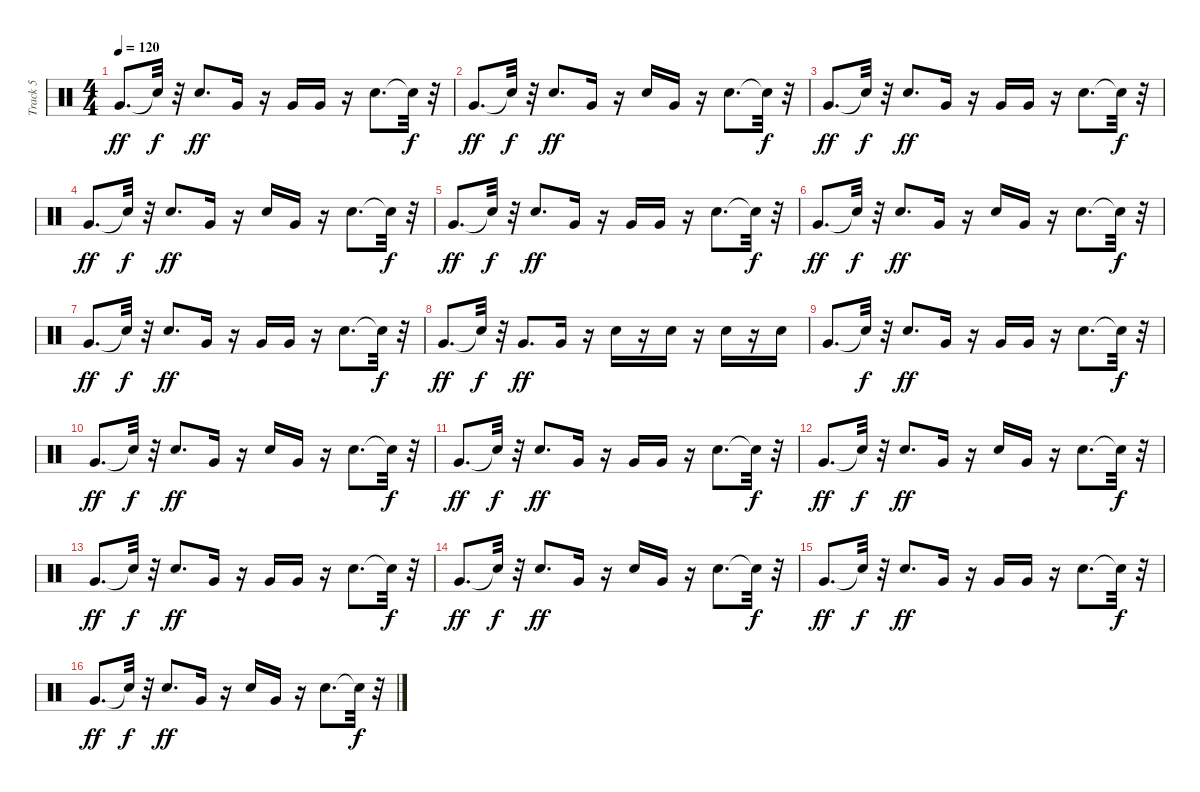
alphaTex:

\track ("Track 5" "Track 5") {instrument percussion}
\staff {score}
\articulation defaults
\ts (4 4)
\tempo 120
\clef neutral
\ks c "Very Low Tom (hit)".8{d dy ff} "Snare (hit)"{t}.32{dy f}
r.32 "Snare (hit) 2".8{d dy ff} "Very Low Tom (hit)".16 r.16 "Very Low Tom (hit)".16 "Very Low Tom (hit)".16 r.16 "Snare (hit) 2".8{d} "Snare (hit)"{t}.32{dy f} r.32 |
"Very Low Tom (hit)".8{d dy ff} "Snare (hit)"{t}.32{dy f} r.32 "Snare (hit) 2".8{d dy ff} "Very Low Tom (hit)".16 r.16 "Snare (hit) 2".16 "Very Low Tom (hit)".16 r.16 "Snare (hit) 2".8{d} "Snare (hit)"{t}.32{dy f} r.32 |
"Very Low Tom (hit)".8{d dy ff} "Snare (hit)"{t}.32{dy f} r.32 "Snare (hit) 2".8{d dy ff} "Very Low Tom (hit)".16 r.16 "Very Low Tom (hit)".16 "Very Low Tom (hit)".16 r.16 "Snare (hit) 2".8{d} "Snare (hit)"{t}.32{dy f} r.32 |
"Very Low Tom (hit)".8{d dy ff} "Snare (hit)"{t}.32{dy f} r.32 "Snare (hit) 2".8{d dy ff} "Very Low Tom (hit)".16 r.16 "Snare (hit) 2".16 "Very Low Tom (hit)".16 r.16 "Snare (hit) 2".8{d} "Snare (hit)"{t}.32{dy f} r.32 |
"Very Low Tom (hit)".8{d dy ff} "Snare (hit)"{t}.32{dy f} r.32 "Snare (hit) 2".8{d dy ff} "Very Low Tom (hit)".16 r.16 "Very Low Tom (hit)".16 "Very Low Tom (hit)".16 r.16 "Snare (hit) 2".8{d} "Snare (hit)"{t}.32{dy f} r.32 |
"Very Low Tom (hit)".8{d dy ff} "Snare (hit)"{t}.32{dy f} r.32 "Snare (hit) 2".8{d dy ff} "Very Low Tom (hit)".16 r.16 "Snare (hit) 2".16 "Very Low Tom (hit)".16 r.16 "Snare (hit) 2".8{d} "Snare (hit)"{t}.32{dy f} r.32 |
"Very Low Tom (hit)".8{d dy ff} "Snare (hit)"{t}.32{dy f} r.32 "Snare (hit) 2".8{d dy ff} "Very Low Tom (hit)".16 r.16 "Very Low Tom (hit)".16 "Very Low Tom (hit)".16 r.16 "Snare (hit) 2".8{d} "Snare (hit)"{t}.32{dy f} r.32 |
"Very Low Tom (hit)".8{d dy ff} "Snare (hit)"{t}.32{dy f} r.32 "Very Low Tom (hit)".8{d dy ff} "Very Low Tom (hit)".16 r.16 "Snare (hit) 2".16 r.16 "Snare (hit) 2".16 r.16 "Snare (hit) 2".16 r.16 "Snare (hit) 2".16 |
"Very Low Tom (hit)".8{d} "Snare (hit)"{t}.32{dy f} r.32 "Snare (hit) 2".8{d dy ff} "Very Low Tom (hit)".16 r.16 "Very Low Tom (hit)".16 "Very Low Tom (hit)".16 r.16 "Snare (hit) 2".8{d} "Snare (hit)"{t}.32{dy f} r.32 |
"Very Low Tom (hit)".8{d dy ff} "Snare (hit)"{t}.32{dy f} r.32 "Snare (hit) 2".8{d dy ff} "Very Low Tom (hit)".16 r.16 "Snare (hit) 2".16 "Very Low Tom (hit)".16 r.16 "Snare (hit) 2".8{d} "Snare (hit)"{t}.32{dy f} r.32 |
"Very Low Tom (hit)".8{d dy ff} "Snare (hit)"{t}.32{dy f} r.32 "Snare (hit) 2".8{d dy ff} "Very Low Tom (hit)".16 r.16 "Very Low Tom (hit)".16 "Very Low Tom (hit)".16 r.16 "Snare (hit) 2".8{d} "Snare (hit)"{t}.32{dy f} r.32 |
"Very Low Tom (hit)".8{d dy ff} "Snare (hit)"{t}.32{dy f} r.32 "Snare (hit) 2".8{d dy ff} "Very Low Tom (hit)".16 r.16 "Snare (hit) 2".16 "Very Low Tom (hit)".16 r.16 "Snare (hit) 2".8{d} "Snare (hit)"{t}.32{dy f} r.32 |
"Very Low Tom (hit)".8{d dy ff} "Snare (hit)"{t}.32{dy f} r.32 "Snare (hit) 2".8{d dy ff} "Very Low Tom (hit)".16 r.16 "Very Low Tom (hit)".16 "Very Low Tom (hit)".16 r.16 "Snare (hit) 2".8{d} "Snare (hit)"{t}.32{dy f} r.32 |
"Very Low Tom (hit)".8{d dy ff} "Snare (hit)"{t}.32{dy f} r.32 "Snare (hit) 2".8{d dy ff} "Very Low Tom (hit)".16 r.16 "Snare (hit) 2".16 "Very Low Tom (hit)".16 r.16 "Snare (hit) 2".8{d} "Snare (hit)"{t}.32{dy f} r.32 |
"Very Low Tom (hit)".8{d dy ff} "Snare (hit)"{t}.32{dy f} r.32 "Snare (hit) 2".8{d dy ff} "Very Low Tom (hit)".16 r.16 "Very Low Tom (hit)".16 "Very Low Tom (hit)".16 r.16 "Snare (hit) 2".8{d} "Snare (hit)"{t}.32{dy f} r.32 |
"Very Low Tom (hit)".8{d dy ff} "Snare (hit)"{t}.32{dy f} r.32 "Snare (hit) 2".8{d dy ff} "Very Low Tom (hit)".16 r.16 "Snare (hit) 2".16 "Very Low Tom (hit)".16 r.16 "Snare (hit) 2".8{d} "Snare (hit)"{t}.32{dy f} r.32
